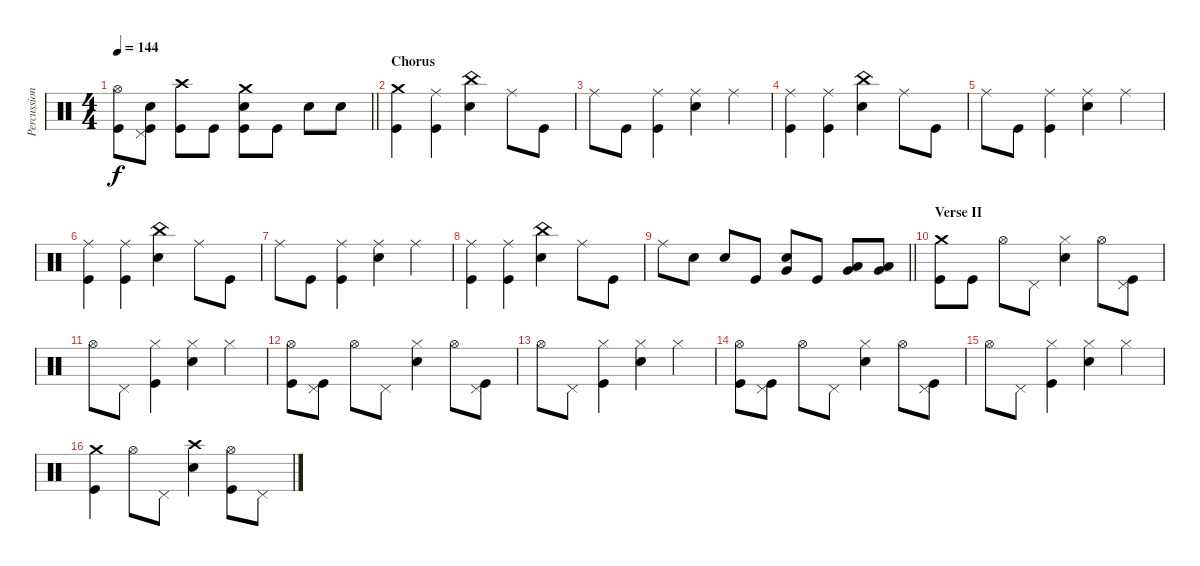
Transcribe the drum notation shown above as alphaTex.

\track ("Percussion" "Percussion") {instrument percussion}
\staff {score}
\articulation defaults
\ts (4 4)
\tempo 144
\clef neutral
\barLineRight lightlight
\ks c
("Hi-Hat (open)" "Kick (hit)").8{dy f} ("Pedal Hi-Hat (hit)" "Electric Snare (hit)" "Kick (hit)").8 ("Crash high (hit)" "Kick (hit)").8 "Kick (hit)".8 ("Crash medium (hit)" "Electric Snare (hit)" "Kick (hit)").8 "Kick (hit)".8 "Electric Snare (hit)".8 "Electric Snare (hit)".8 |
\section ("" "Chorus")
("Crash medium (hit)" "Kick (hit)").4 ("Ride (middle)" "Kick (hit)").4 ("China (hit)" "Electric Snare (hit)").4 "Ride (middle)".8 "Kick (hit)".8 |
"Ride (middle)".8 "Kick (hit)".8 ("Ride (middle)" "Kick (hit)").4 ("Ride (middle)" "Electric Snare (hit)").4 "Ride (middle)".4 |
("Ride (middle)" "Kick (hit)").4 ("Ride (middle)" "Kick (hit)").4 ("China (hit)" "Electric Snare (hit)").4 "Ride (middle)".8 "Kick (hit)".8 |
"Ride (middle)".8 "Kick (hit)".8 ("Ride (middle)" "Kick (hit)").4 ("Ride (middle)" "Electric Snare (hit)").4 "Ride (middle)".4 |
("Ride (middle)" "Kick (hit)").4 ("Ride (middle)" "Kick (hit)").4 ("China (hit)" "Electric Snare (hit)").4 "Ride (middle)".8 "Kick (hit)".8 |
"Ride (middle)".8 "Kick (hit)".8 ("Ride (middle)" "Kick (hit)").4 ("Ride (middle)" "Electric Snare (hit)").4 "Ride (middle)".4 |
("Ride (middle)" "Kick (hit)").4 ("Ride (middle)" "Kick (hit)").4 ("China (hit)" "Electric Snare (hit)").4 "Ride (middle)".8 "Kick (hit)".8 |
\barLineRight lightlight "Ride (middle)".8 "Electric Snare (hit)".8 "Electric Snare (hit)".8 "Kick (hit)".8
("Electric Snare (hit)" "Very Low Tom (hit)").8 "Kick (hit)".8 ("Very Low Tom (hit)" "Low Floor Tom (hit)").8 ("Very Low Tom (hit)" "Low Floor Tom (hit)").8 |
\section ("" "Verse II")
("Crash medium (hit)" "Kick (hit)").8 "Kick (hit)".8 "Hi-Hat (open)".8 "Pedal Hi-Hat (hit)".8 ("Hi-Hat (closed)" "Electric Snare (hit)").4 "Hi-Hat (open)".8 ("Pedal Hi-Hat (hit)" "Kick (hit)").8 |
"Hi-Hat (open)".8 "Pedal Hi-Hat (hit)".8 ("Hi-Hat (closed)" "Kick (hit)").4 ("Hi-Hat (closed)" "Electric Snare (hit)").4 "Hi-Hat (closed)".4 |
("Hi-Hat (open)" "Kick (hit)").8 ("Pedal Hi-Hat (hit)" "Kick (hit)").8 "Hi-Hat (open)".8 "Pedal Hi-Hat (hit)".8 ("Hi-Hat (closed)" "Electric Snare (hit)").4 "Hi-Hat (open)".8 ("Pedal Hi-Hat (hit)" "Kick (hit)").8 |
"Hi-Hat (open)".8 "Pedal Hi-Hat (hit)".8 ("Hi-Hat (closed)" "Kick (hit)").4 ("Hi-Hat (closed)" "Electric Snare (hit)").4 "Hi-Hat (closed)".4 |
("Hi-Hat (open)" "Kick (hit)").8 ("Pedal Hi-Hat (hit)" "Kick (hit)").8 "Hi-Hat (open)".8 "Pedal Hi-Hat (hit)".8 ("Hi-Hat (closed)" "Electric Snare (hit)").4 "Hi-Hat (open)".8 ("Pedal Hi-Hat (hit)" "Kick (hit)").8 |
"Hi-Hat (open)".8 "Pedal Hi-Hat (hit)".8 ("Hi-Hat (closed)" "Kick (hit)").4 ("Hi-Hat (closed)" "Electric Snare (hit)").4 "Hi-Hat (closed)".4 |
("Crash medium (hit)" "Kick (hit)").4 "Hi-Hat (open)".8 "Pedal Hi-Hat (hit)".8 ("Crash high (hit)" "Electric Snare (hit)").4 ("Hi-Hat (open)" "Kick (hit)").8 "Pedal Hi-Hat (hit)".8
